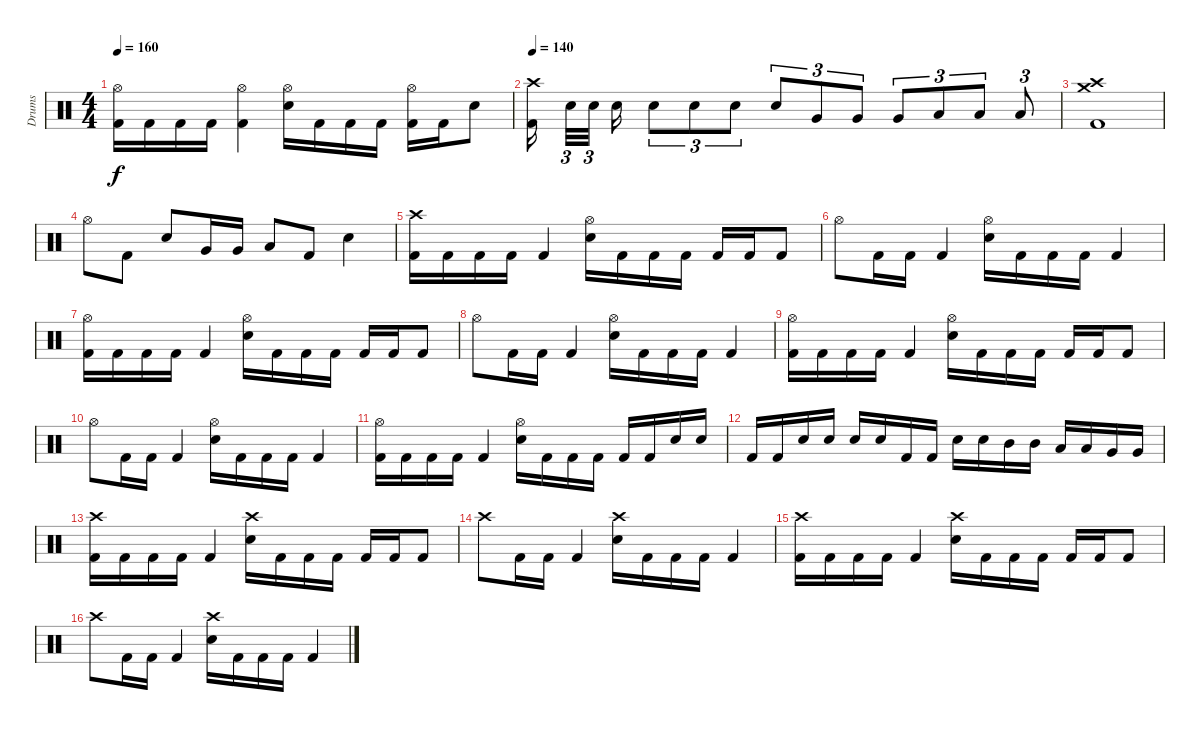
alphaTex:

\track ("Drums" "Drums") {instrument percussion}
\staff {score}
\articulation defaults
\ts (4 4)
\tempo 160
\clef neutral
\ks c
("Hi-Hat (open)" "Kick (hit) 2").16{dy f} "Kick (hit) 2".16 "Kick (hit) 2".16 "Kick (hit) 2".16 ("Hi-Hat (open)" "Kick (hit) 2").4 ("Hi-Hat (open)" "Electric Snare (hit)").16 "Kick (hit) 2".16 "Kick (hit) 2".16 "Kick (hit) 2".16 ("Hi-Hat (open)" "Kick (hit) 2").16 "Kick (hit) 2".16 "Electric Snare (hit)".8 |
\tempo 140
("Crash high (hit)" "Kick (hit) 2").16{beam splitsecondary} "Electric Snare (hit)".32{tu (3 2)} "Electric Snare (hit)".32{tu (3 2) beam splitsecondary} "Electric Snare (hit)".16 "Electric Snare (hit)".8{tu (3 2)} "Electric Snare (hit)".8{tu (3 2)} "Electric Snare (hit)".8{tu (3 2)} "Electric Snare (hit)".8{tu (3 2)} "Very Low Tom (hit)".8{tu (3 2)} "Very Low Tom (hit)".8{tu (3 2)} "Very Low Tom (hit)".8{tu (3 2)} "Low Floor Tom (hit)".8{tu (3 2)} "Low Floor Tom (hit)".8{tu (3 2)} "Low Floor Tom (hit)".8{tu (3 2)} |
("Crash high (hit)" "Crash medium (hit)" "Kick (hit) 2").1 |
"Hi-Hat (open)".8 "Kick (hit) 2".8 "Electric Snare (hit)".8 "Very Low Tom (hit)".16 "Very Low Tom (hit)".16 "Low Floor Tom (hit)".8 "Kick (hit) 2".8 "Electric Snare (hit)".4 |
("Crash high (hit)" "Kick (hit) 2").16 "Kick (hit) 2".16 "Kick (hit) 2".16 "Kick (hit) 2".16 "Kick (hit) 2".4 ("Hi-Hat (open)" "Electric Snare (hit)").16 "Kick (hit) 2".16 "Kick (hit) 2".16 "Kick (hit) 2".16 "Kick (hit) 2".16 "Kick (hit) 2".16 "Kick (hit) 2".8 |
"Hi-Hat (open)".8 "Kick (hit) 2".16 "Kick (hit) 2".16 "Kick (hit) 2".4 ("Hi-Hat (open)" "Electric Snare (hit)").16 "Kick (hit) 2".16 "Kick (hit) 2".16 "Kick (hit) 2".16 "Kick (hit) 2".4 |
("Hi-Hat (open)" "Kick (hit) 2").16 "Kick (hit) 2".16 "Kick (hit) 2".16 "Kick (hit) 2".16 "Kick (hit) 2".4 ("Hi-Hat (open)" "Electric Snare (hit)").16 "Kick (hit) 2".16 "Kick (hit) 2".16 "Kick (hit) 2".16 "Kick (hit) 2".16 "Kick (hit) 2".16 "Kick (hit) 2".8 |
"Hi-Hat (open)".8 "Kick (hit) 2".16 "Kick (hit) 2".16 "Kick (hit) 2".4 ("Hi-Hat (open)" "Electric Snare (hit)").16 "Kick (hit) 2".16 "Kick (hit) 2".16 "Kick (hit) 2".16 "Kick (hit) 2".4 |
("Hi-Hat (open)" "Kick (hit) 2").16 "Kick (hit) 2".16 "Kick (hit) 2".16 "Kick (hit) 2".16 "Kick (hit) 2".4 ("Hi-Hat (open)" "Electric Snare (hit)").16 "Kick (hit) 2".16 "Kick (hit) 2".16 "Kick (hit) 2".16 "Kick (hit) 2".16 "Kick (hit) 2".16 "Kick (hit) 2".8 |
"Hi-Hat (open)".8 "Kick (hit) 2".16 "Kick (hit) 2".16 "Kick (hit) 2".4 ("Hi-Hat (open)" "Electric Snare (hit)").16 "Kick (hit) 2".16 "Kick (hit) 2".16 "Kick (hit) 2".16 "Kick (hit) 2".4 |
("Hi-Hat (open)" "Kick (hit) 2").16 "Kick (hit) 2".16 "Kick (hit) 2".16 "Kick (hit) 2".16 "Kick (hit) 2".4 ("Hi-Hat (open)" "Electric Snare (hit)").16 "Kick (hit) 2".16 "Kick (hit) 2".16 "Kick (hit) 2".16 "Kick (hit) 2".16 "Kick (hit) 2".16 "Electric Snare (hit)".16 "Electric Snare (hit)".16 |
"Kick (hit) 2".16 "Kick (hit) 2".16 "Electric Snare (hit)".16 "Electric Snare (hit)".16 "Electric Snare (hit)".16 "Electric Snare (hit)".16 "Kick (hit) 2".16 "Kick (hit) 2".16 "Electric Snare (hit)".16 "Electric Snare (hit)".16 "Mid Tom (hit)".16 "Mid Tom (hit)".16 "Low Tom (hit)".16 "Low Tom (hit)".16 "Very Low Tom (hit)".16 "Very Low Tom (hit)".16 |
("Crash high (hit)" "Kick (hit) 2").16 "Kick (hit) 2".16 "Kick (hit) 2".16 "Kick (hit) 2".16 "Kick (hit) 2".4 ("Crash high (hit)" "Electric Snare (hit)").16 "Kick (hit) 2".16 "Kick (hit) 2".16 "Kick (hit) 2".16 "Kick (hit) 2".16 "Kick (hit) 2".16 "Kick (hit) 2".8 |
"Crash high (hit)".8 "Kick (hit) 2".16 "Kick (hit) 2".16 "Kick (hit) 2".4 ("Crash high (hit)" "Electric Snare (hit)").16 "Kick (hit) 2".16 "Kick (hit) 2".16 "Kick (hit) 2".16 "Kick (hit) 2".4 |
("Crash high (hit)" "Kick (hit) 2").16 "Kick (hit) 2".16 "Kick (hit) 2".16 "Kick (hit) 2".16 "Kick (hit) 2".4 ("Crash high (hit)" "Electric Snare (hit)").16 "Kick (hit) 2".16 "Kick (hit) 2".16 "Kick (hit) 2".16 "Kick (hit) 2".16 "Kick (hit) 2".16 "Kick (hit) 2".8 |
"Crash high (hit)".8 "Kick (hit) 2".16 "Kick (hit) 2".16 "Kick (hit) 2".4 ("Crash high (hit)" "Electric Snare (hit)").16 "Kick (hit) 2".16 "Kick (hit) 2".16 "Kick (hit) 2".16 "Kick (hit) 2".4
